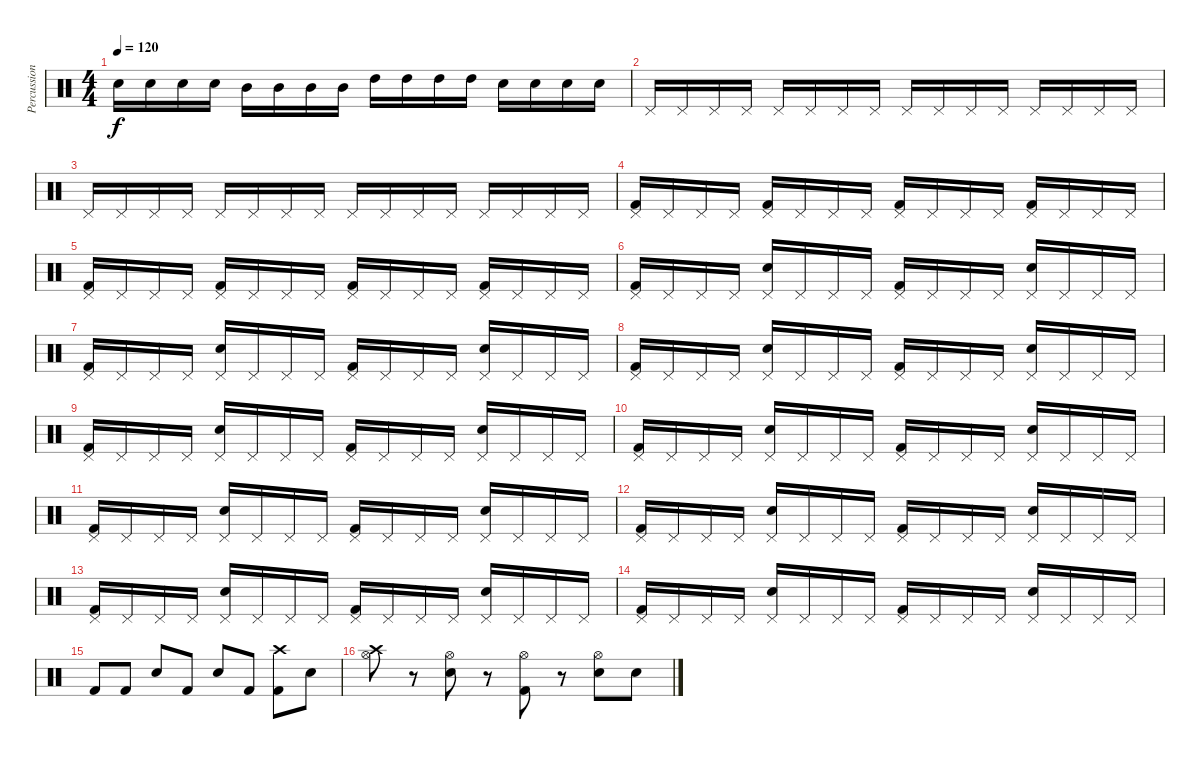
\track ("Percussion" "Percussion") {instrument percussion}
\staff {score}
\articulation defaults
\ts (4 4)
\tempo 120
\clef neutral
\ks c "Snare (hit) 2".16{dy f} "Snare (hit) 2".16 "Snare (hit) 2".16 "Snare (hit) 2".16 "Mid Tom (hit)".16 "Mid Tom (hit)".16 "Mid Tom (hit)".16 "Mid Tom (hit)".16 "High Tom (hit)".16 "High Tom (hit)".16 "High Tom (hit)".16 "High Tom (hit)".16 "Snare (hit) 2".16 "Snare (hit) 2".16 "Snare (hit) 2".16 "Snare (hit) 2".16
|
"Pedal Hi-Hat (hit)".16 "Pedal Hi-Hat (hit)".16 "Pedal Hi-Hat (hit)".16 "Pedal Hi-Hat (hit)".16 "Pedal Hi-Hat (hit)".16 "Pedal Hi-Hat (hit)".16 "Pedal Hi-Hat (hit)".16 "Pedal Hi-Hat (hit)".16 "Pedal Hi-Hat (hit)".16 "Pedal Hi-Hat (hit)".16 "Pedal Hi-Hat (hit)".16 "Pedal Hi-Hat (hit)".16 "Pedal Hi-Hat (hit)".16 "Pedal Hi-Hat (hit)".16 "Pedal Hi-Hat (hit)".16 "Pedal Hi-Hat (hit)".16 |
"Pedal Hi-Hat (hit)".16 "Pedal Hi-Hat (hit)".16 "Pedal Hi-Hat (hit)".16 "Pedal Hi-Hat (hit)".16 "Pedal Hi-Hat (hit)".16 "Pedal Hi-Hat (hit)".16 "Pedal Hi-Hat (hit)".16 "Pedal Hi-Hat (hit)".16 "Pedal Hi-Hat (hit)".16 "Pedal Hi-Hat (hit)".16 "Pedal Hi-Hat (hit)".16 "Pedal Hi-Hat (hit)".16 "Pedal Hi-Hat (hit)".16 "Pedal Hi-Hat (hit)".16 "Pedal Hi-Hat (hit)".16 "Pedal Hi-Hat (hit)".16 |
("Pedal Hi-Hat (hit)" "Kick (hit) 2").16 "Pedal Hi-Hat (hit)".16 "Pedal Hi-Hat (hit)".16 "Pedal Hi-Hat (hit)".16 ("Pedal Hi-Hat (hit)" "Kick (hit) 2").16 "Pedal Hi-Hat (hit)".16 "Pedal Hi-Hat (hit)".16 "Pedal Hi-Hat (hit)".16 ("Pedal Hi-Hat (hit)" "Kick (hit) 2").16 "Pedal Hi-Hat (hit)".16 "Pedal Hi-Hat (hit)".16 "Pedal Hi-Hat (hit)".16 ("Pedal Hi-Hat (hit)" "Kick (hit) 2").16 "Pedal Hi-Hat (hit)".16 "Pedal Hi-Hat (hit)".16 "Pedal Hi-Hat (hit)".16 |
("Pedal Hi-Hat (hit)" "Kick (hit) 2").16 "Pedal Hi-Hat (hit)".16 "Pedal Hi-Hat (hit)".16 "Pedal Hi-Hat (hit)".16 ("Pedal Hi-Hat (hit)" "Kick (hit) 2").16 "Pedal Hi-Hat (hit)".16 "Pedal Hi-Hat (hit)".16 "Pedal Hi-Hat (hit)".16 ("Pedal Hi-Hat (hit)" "Kick (hit) 2").16 "Pedal Hi-Hat (hit)".16 "Pedal Hi-Hat (hit)".16 "Pedal Hi-Hat (hit)".16 ("Pedal Hi-Hat (hit)" "Kick (hit) 2").16 "Pedal Hi-Hat (hit)".16 "Pedal Hi-Hat (hit)".16 "Pedal Hi-Hat (hit)".16 |
("Pedal Hi-Hat (hit)" "Kick (hit) 2").16 "Pedal Hi-Hat (hit)".16 "Pedal Hi-Hat (hit)".16 "Pedal Hi-Hat (hit)".16 ("Pedal Hi-Hat (hit)" "Electric Snare (hit)").16 "Pedal Hi-Hat (hit)".16 "Pedal Hi-Hat (hit)".16 "Pedal Hi-Hat (hit)".16 ("Pedal Hi-Hat (hit)" "Kick (hit) 2").16 "Pedal Hi-Hat (hit)".16 "Pedal Hi-Hat (hit)".16 "Pedal Hi-Hat (hit)".16 ("Pedal Hi-Hat (hit)" "Electric Snare (hit)").16 "Pedal Hi-Hat (hit)".16 "Pedal Hi-Hat (hit)".16 "Pedal Hi-Hat (hit)".16 |
("Pedal Hi-Hat (hit)" "Kick (hit) 2").16 "Pedal Hi-Hat (hit)".16 "Pedal Hi-Hat (hit)".16 "Pedal Hi-Hat (hit)".16 ("Pedal Hi-Hat (hit)" "Electric Snare (hit)").16 "Pedal Hi-Hat (hit)".16 "Pedal Hi-Hat (hit)".16 "Pedal Hi-Hat (hit)".16 ("Pedal Hi-Hat (hit)" "Kick (hit) 2").16 "Pedal Hi-Hat (hit)".16 "Pedal Hi-Hat (hit)".16 "Pedal Hi-Hat (hit)".16 ("Pedal Hi-Hat (hit)" "Electric Snare (hit)").16 "Pedal Hi-Hat (hit)".16 "Pedal Hi-Hat (hit)".16 "Pedal Hi-Hat (hit)".16 |
("Pedal Hi-Hat (hit)" "Kick (hit) 2").16 "Pedal Hi-Hat (hit)".16 "Pedal Hi-Hat (hit)".16 "Pedal Hi-Hat (hit)".16 ("Pedal Hi-Hat (hit)" "Electric Snare (hit)").16 "Pedal Hi-Hat (hit)".16 "Pedal Hi-Hat (hit)".16 "Pedal Hi-Hat (hit)".16 ("Pedal Hi-Hat (hit)" "Kick (hit) 2").16 "Pedal Hi-Hat (hit)".16 "Pedal Hi-Hat (hit)".16 "Pedal Hi-Hat (hit)".16 ("Pedal Hi-Hat (hit)" "Electric Snare (hit)").16 "Pedal Hi-Hat (hit)".16 "Pedal Hi-Hat (hit)".16 "Pedal Hi-Hat (hit)".16 |
("Pedal Hi-Hat (hit)" "Kick (hit) 2").16 "Pedal Hi-Hat (hit)".16 "Pedal Hi-Hat (hit)".16 "Pedal Hi-Hat (hit)".16 ("Pedal Hi-Hat (hit)" "Electric Snare (hit)").16 "Pedal Hi-Hat (hit)".16 "Pedal Hi-Hat (hit)".16 "Pedal Hi-Hat (hit)".16 ("Pedal Hi-Hat (hit)" "Kick (hit) 2").16 "Pedal Hi-Hat (hit)".16 "Pedal Hi-Hat (hit)".16 "Pedal Hi-Hat (hit)".16 ("Pedal Hi-Hat (hit)" "Electric Snare (hit)").16 "Pedal Hi-Hat (hit)".16 "Pedal Hi-Hat (hit)".16 "Pedal Hi-Hat (hit)".16 |
("Pedal Hi-Hat (hit)" "Kick (hit) 2").16 "Pedal Hi-Hat (hit)".16 "Pedal Hi-Hat (hit)".16 "Pedal Hi-Hat (hit)".16 ("Pedal Hi-Hat (hit)" "Electric Snare (hit)").16 "Pedal Hi-Hat (hit)".16 "Pedal Hi-Hat (hit)".16 "Pedal Hi-Hat (hit)".16 ("Pedal Hi-Hat (hit)" "Kick (hit) 2").16 "Pedal Hi-Hat (hit)".16 "Pedal Hi-Hat (hit)".16 "Pedal Hi-Hat (hit)".16 ("Pedal Hi-Hat (hit)" "Electric Snare (hit)").16 "Pedal Hi-Hat (hit)".16 "Pedal Hi-Hat (hit)".16 "Pedal Hi-Hat (hit)".16 |
("Pedal Hi-Hat (hit)" "Kick (hit) 2").16 "Pedal Hi-Hat (hit)".16 "Pedal Hi-Hat (hit)".16 "Pedal Hi-Hat (hit)".16 ("Pedal Hi-Hat (hit)" "Electric Snare (hit)").16 "Pedal Hi-Hat (hit)".16 "Pedal Hi-Hat (hit)".16 "Pedal Hi-Hat (hit)".16 ("Pedal Hi-Hat (hit)" "Kick (hit) 2").16 "Pedal Hi-Hat (hit)".16 "Pedal Hi-Hat (hit)".16 "Pedal Hi-Hat (hit)".16 ("Pedal Hi-Hat (hit)" "Electric Snare (hit)").16 "Pedal Hi-Hat (hit)".16 "Pedal Hi-Hat (hit)".16 "Pedal Hi-Hat (hit)".16 |
("Pedal Hi-Hat (hit)" "Kick (hit) 2").16 "Pedal Hi-Hat (hit)".16 "Pedal Hi-Hat (hit)".16 "Pedal Hi-Hat (hit)".16 ("Pedal Hi-Hat (hit)" "Electric Snare (hit)").16 "Pedal Hi-Hat (hit)".16 "Pedal Hi-Hat (hit)".16 "Pedal Hi-Hat (hit)".16 ("Pedal Hi-Hat (hit)" "Kick (hit) 2").16 "Pedal Hi-Hat (hit)".16 "Pedal Hi-Hat (hit)".16 "Pedal Hi-Hat (hit)".16 ("Pedal Hi-Hat (hit)" "Electric Snare (hit)").16 "Pedal Hi-Hat (hit)".16 "Pedal Hi-Hat (hit)".16 "Pedal Hi-Hat (hit)".16 |
("Pedal Hi-Hat (hit)" "Kick (hit) 2").16 "Pedal Hi-Hat (hit)".16 "Pedal Hi-Hat (hit)".16 "Pedal Hi-Hat (hit)".16 ("Pedal Hi-Hat (hit)" "Electric Snare (hit)").16 "Pedal Hi-Hat (hit)".16 "Pedal Hi-Hat (hit)".16 "Pedal Hi-Hat (hit)".16 ("Pedal Hi-Hat (hit)" "Kick (hit) 2").16 "Pedal Hi-Hat (hit)".16 "Pedal Hi-Hat (hit)".16 "Pedal Hi-Hat (hit)".16 ("Pedal Hi-Hat (hit)" "Electric Snare (hit)").16 "Pedal Hi-Hat (hit)".16 "Pedal Hi-Hat (hit)".16 "Pedal Hi-Hat (hit)".16 |
("Pedal Hi-Hat (hit)" "Kick (hit) 2").16 "Pedal Hi-Hat (hit)".16 "Pedal Hi-Hat (hit)".16 "Pedal Hi-Hat (hit)".16 ("Pedal Hi-Hat (hit)" "Electric Snare (hit)").16 "Pedal Hi-Hat (hit)".16 "Pedal Hi-Hat (hit)".16 "Pedal Hi-Hat (hit)".16 ("Pedal Hi-Hat (hit)" "Kick (hit) 2").16 "Pedal Hi-Hat (hit)".16 "Pedal Hi-Hat (hit)".16 "Pedal Hi-Hat (hit)".16 ("Pedal Hi-Hat (hit)" "Electric Snare (hit)").16 "Pedal Hi-Hat (hit)".16 "Pedal Hi-Hat (hit)".16 "Pedal Hi-Hat (hit)".16 |
"Kick (hit) 2".8 "Kick (hit) 2".8 "Snare (hit) 2".8 "Kick (hit) 2".8 "Snare (hit) 2".8 "Kick (hit) 2".8 ("Kick (hit) 2" "Crash high (hit)").8 "Snare (hit)".8 |
("Crash high (hit)" "Hi-Hat (open)").8 r.8 ("Electric Snare (hit)" "Hi-Hat (open)").8 r.8 ("Kick (hit) 2" "Hi-Hat (open)").8 r.8 ("Electric Snare (hit)" "Hi-Hat (open)").8 "Snare (hit)".8
